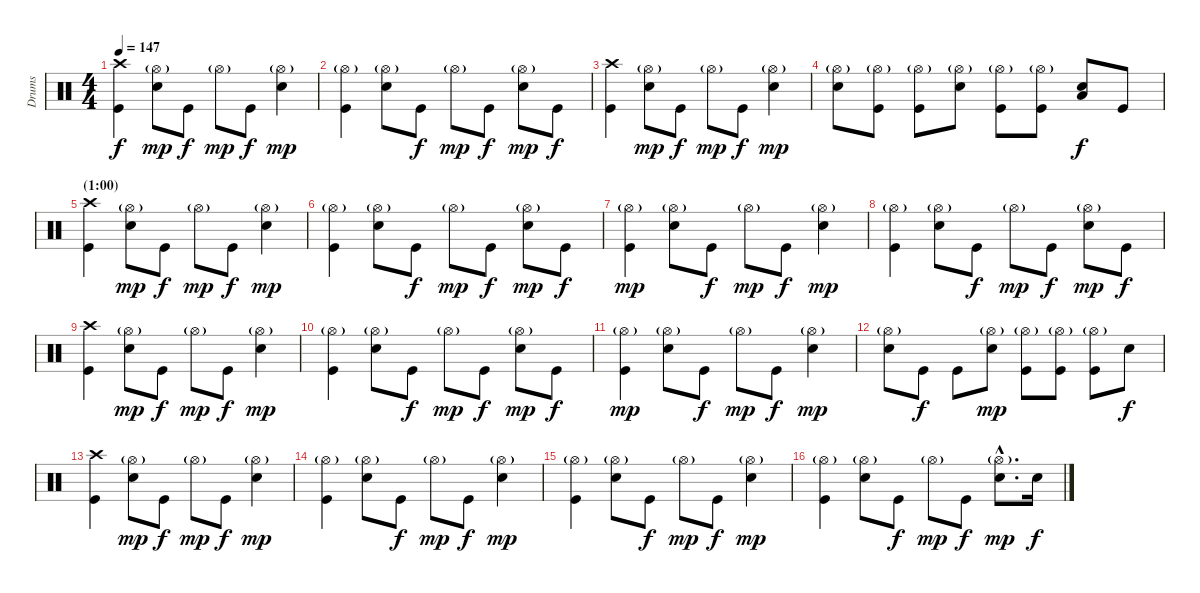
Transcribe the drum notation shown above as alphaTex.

\track ("Drums" "Drums") {instrument percussion}
\staff {score}
\articulation defaults
\ts (4 4)
\tempo 147
\clef neutral
\ks c
("Crash high (hit)" "Kick (hit)").4{dy f} ("Hi-Hat (open)"{g} "Snare (hit) 2").8{dy mp} "Kick (hit)".8{dy f} "Hi-Hat (open)"{g}.8{dy mp} "Kick (hit)".8{dy f} ("Hi-Hat (open)"{g} "Snare (hit) 2").4{dy mp} |
("Hi-Hat (open)"{g} "Kick (hit)").4 ("Hi-Hat (open)"{g} "Snare (hit) 2").8 "Kick (hit)".8{dy f} "Hi-Hat (open)"{g}.8{dy mp} "Kick (hit)".8{dy f} ("Hi-Hat (open)"{g} "Snare (hit) 2").8{dy mp} "Kick (hit)".8{dy f} |
("Crash high (hit)" "Kick (hit)").4 ("Hi-Hat (open)"{g} "Snare (hit) 2").8{dy mp} "Kick (hit)".8{dy f} "Hi-Hat (open)"{g}.8{dy mp} "Kick (hit)".8{dy f} ("Hi-Hat (open)"{g} "Snare (hit) 2").4{dy mp} |
("Hi-Hat (open)"{g} "Snare (hit) 2").8 ("Hi-Hat (open)"{g} "Kick (hit)").8 ("Hi-Hat (open)"{g} "Kick (hit)").8 ("Hi-Hat (open)"{g} "Snare (hit) 2").8 ("Hi-Hat (open)"{g} "Kick (hit)").8 ("Hi-Hat (open)"{g} "Kick (hit)").8 ("Snare (hit) 2" "Low Floor Tom (hit)").8{dy f} "Kick (hit)".8 |
\section ("" "(1:00)")
("Crash high (hit)" "Kick (hit)").4 ("Hi-Hat (open)"{g} "Snare (hit) 2").8{dy mp} "Kick (hit)".8{dy f} "Hi-Hat (open)"{g}.8{dy mp} "Kick (hit)".8{dy f} ("Hi-Hat (open)"{g} "Snare (hit) 2").4{dy mp} |
("Hi-Hat (open)"{g} "Kick (hit)").4 ("Hi-Hat (open)"{g} "Snare (hit) 2").8 "Kick (hit)".8{dy f} "Hi-Hat (open)"{g}.8{dy mp} "Kick (hit)".8{dy f} ("Hi-Hat (open)"{g} "Snare (hit) 2").8{dy mp} "Kick (hit)".8{dy f} |
("Hi-Hat (open)"{g} "Kick (hit)").4{dy mp} ("Hi-Hat (open)"{g} "Snare (hit) 2").8 "Kick (hit)".8{dy f} "Hi-Hat (open)"{g}.8{dy mp} "Kick (hit)".8{dy f} ("Hi-Hat (open)"{g} "Snare (hit) 2").4{dy mp} |
("Hi-Hat (open)"{g} "Kick (hit)").4 ("Hi-Hat (open)"{g} "Snare (hit) 2").8 "Kick (hit)".8{dy f} "Hi-Hat (open)"{g}.8{dy mp} "Kick (hit)".8{dy f} ("Hi-Hat (open)"{g} "Snare (hit) 2").8{dy mp} "Kick (hit)".8{dy f} |
("Crash high (hit)" "Kick (hit)").4 ("Hi-Hat (open)"{g} "Snare (hit) 2").8{dy mp} "Kick (hit)".8{dy f} "Hi-Hat (open)"{g}.8{dy mp} "Kick (hit)".8{dy f} ("Hi-Hat (open)"{g} "Snare (hit) 2").4{dy mp} |
("Hi-Hat (open)"{g} "Kick (hit)").4 ("Hi-Hat (open)"{g} "Snare (hit) 2").8 "Kick (hit)".8{dy f} "Hi-Hat (open)"{g}.8{dy mp} "Kick (hit)".8{dy f} ("Hi-Hat (open)"{g} "Snare (hit) 2").8{dy mp} "Kick (hit)".8{dy f} |
("Hi-Hat (open)"{g} "Kick (hit)").4{dy mp} ("Hi-Hat (open)"{g} "Snare (hit) 2").8 "Kick (hit)".8{dy f} "Hi-Hat (open)"{g}.8{dy mp} "Kick (hit)".8{dy f} ("Hi-Hat (open)"{g} "Snare (hit) 2").4{dy mp} |
("Hi-Hat (open)"{g} "Snare (hit) 2").8 "Kick (hit)".8{dy f} "Kick (hit)".8 ("Hi-Hat (open)"{g} "Snare (hit) 2").8{dy mp} ("Hi-Hat (open)"{g} "Kick (hit)").8 ("Hi-Hat (open)"{g} "Kick (hit)").8 ("Hi-Hat (open)"{g} "Kick (hit)").8 "Snare (hit) 2".8{dy f} |
("Crash high (hit)" "Kick (hit)").4 ("Hi-Hat (open)"{g} "Snare (hit) 2").8{dy mp} "Kick (hit)".8{dy f} "Hi-Hat (open)"{g}.8{dy mp} "Kick (hit)".8{dy f} ("Hi-Hat (open)"{g} "Snare (hit) 2").4{dy mp} |
("Hi-Hat (open)"{g} "Kick (hit)").4 ("Hi-Hat (open)"{g} "Snare (hit) 2").8 "Kick (hit)".8{dy f} "Hi-Hat (open)"{g}.8{dy mp} "Kick (hit)".8{dy f} ("Hi-Hat (open)"{g} "Snare (hit) 2").4{dy mp} |
("Hi-Hat (open)"{g} "Kick (hit)").4 ("Hi-Hat (open)"{g} "Snare (hit) 2").8 "Kick (hit)".8{dy f} "Hi-Hat (open)"{g}.8{dy mp} "Kick (hit)".8{dy f} ("Hi-Hat (open)"{g} "Snare (hit) 2").4{dy mp} |
("Hi-Hat (open)"{g} "Kick (hit)").4 ("Hi-Hat (open)"{g} "Snare (hit) 2").8 "Kick (hit)".8{dy f} "Hi-Hat (open)"{g}.8{dy mp} "Kick (hit)".8{dy f} ("Hi-Hat (open)"{g hac} "Snare (hit) 2"{hac}).8{d dy mp} "Snare (hit) 2".16{dy f}
